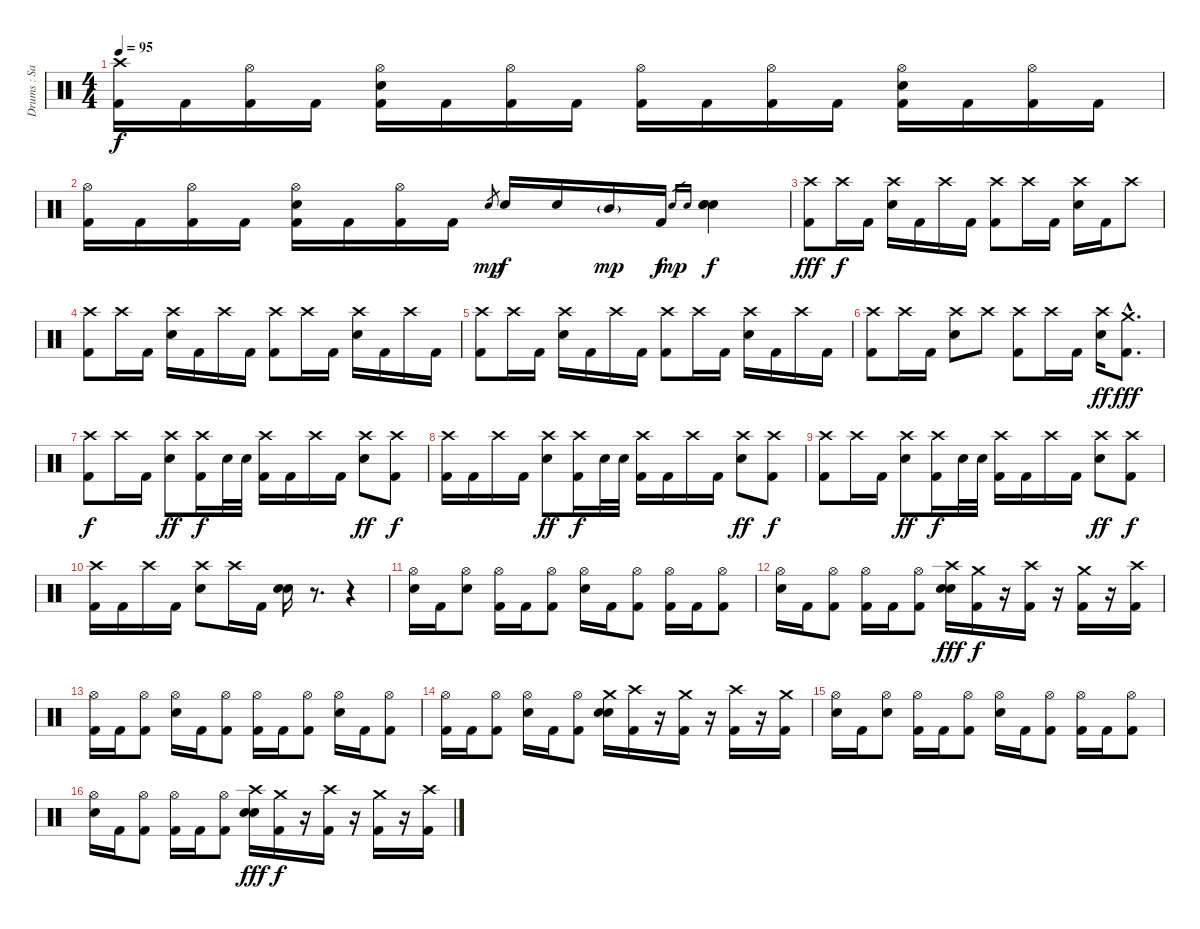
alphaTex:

\track ("Drums : Sammy Siegler" "Drums : Sa") {instrument percussion}
\staff {score}
\articulation defaults
\ts (4 4)
\tempo 95
\clef neutral
\ks c
("Crash high (hit)" "Kick (hit) 2").16{dy f} "Kick (hit) 2".16 ("Hi-Hat (open)" "Kick (hit) 2").16 "Kick (hit) 2".16 ("Hi-Hat (open)" "Electric Snare (hit)" "Kick (hit) 2").16 "Kick (hit) 2".16 ("Hi-Hat (open)" "Kick (hit) 2").16 "Kick (hit) 2".16 ("Hi-Hat (open)" "Kick (hit) 2").16 "Kick (hit) 2".16 ("Hi-Hat (open)" "Kick (hit) 2").16 "Kick (hit) 2".16 ("Hi-Hat (open)" "Electric Snare (hit)" "Kick (hit) 2").16 "Kick (hit) 2".16 ("Hi-Hat (open)" "Kick (hit) 2").16 "Kick (hit) 2".16 |
("Hi-Hat (open)" "Kick (hit) 2").16 "Kick (hit) 2".16 ("Hi-Hat (open)" "Kick (hit) 2").16 "Kick (hit) 2".16 ("Hi-Hat (open)" "Electric Snare (hit)" "Kick (hit) 2").16 "Kick (hit) 2".16 ("Hi-Hat (open)" "Kick (hit) 2").16 "Kick (hit) 2".16 "Electric Snare (hit)"{sl}.8{gr dy mp} "Electric Snare (hit)".16{dy f} "Electric Snare (hit)".16 "Mid Tom (hit)"{g}.16{dy mp} "Kick (hit) 2".16{dy f} "Electric Snare (hit)".16{gr dy mp} "Electric Snare (hit)".16{gr} ("Snare (hit) 2" "Electric Snare (hit)" "Electric Snare (hit)").4{dy f} |
("Crash high (hit)" "Kick (hit) 2").8{dy fff} "Crash high (hit)".16{dy f} "Kick (hit) 2".16 ("Crash high (hit)" "Electric Snare (hit)").16 "Kick (hit) 2".16 "Crash high (hit)".16 "Kick (hit) 2".16 ("Crash high (hit)" "Kick (hit) 2").8 "Crash high (hit)".16 "Kick (hit) 2".16 ("Crash high (hit)" "Electric Snare (hit)").16 "Kick (hit) 2".16 "Crash high (hit)".8 |
("Crash high (hit)" "Kick (hit) 2").8 "Crash high (hit)".16 "Kick (hit) 2".16 ("Crash high (hit)" "Electric Snare (hit)").16 "Kick (hit) 2".16 "Crash high (hit)".16 "Kick (hit) 2".16 ("Crash high (hit)" "Kick (hit) 2").8 "Crash high (hit)".16 "Kick (hit) 2".16 ("Crash high (hit)" "Electric Snare (hit)").16 "Kick (hit) 2".16 "Crash high (hit)".16 "Kick (hit) 2".16 |
("Crash high (hit)" "Kick (hit) 2").8 "Crash high (hit)".16 "Kick (hit) 2".16 ("Crash high (hit)" "Electric Snare (hit)").16 "Kick (hit) 2".16 "Crash high (hit)".16 "Kick (hit) 2".16 ("Crash high (hit)" "Kick (hit) 2").8 "Crash high (hit)".16 "Kick (hit) 2".16 ("Crash high (hit)" "Electric Snare (hit)").16 "Kick (hit) 2".16 "Crash high (hit)".16 "Kick (hit) 2".16 |
("Crash high (hit)" "Kick (hit) 2").8 "Crash high (hit)".16 "Kick (hit) 2".16 ("Crash high (hit)" "Electric Snare (hit)").8 "Crash high (hit)".8 ("Crash high (hit)" "Kick (hit) 2").8 "Crash high (hit)".16 "Kick (hit) 2".16 ("Crash high (hit)" "Electric Snare (hit)").16{dy ff} ("Crash medium (hit)"{hac} "Kick (hit) 2"{hac}).8{d dy fff} |
("Crash high (hit)" "Kick (hit) 2").8{dy f} "Crash high (hit)".16 "Kick (hit) 2".16 ("Crash high (hit)" "Electric Snare (hit)").8{dy ff} ("Crash high (hit)" "Kick (hit) 2").16{dy f} "Electric Snare (hit)".32 "Electric Snare (hit)".32 ("Crash high (hit)" "Kick (hit) 2").16 "Kick (hit) 2".16 "Crash high (hit)".16 "Kick (hit) 2".16 ("Crash high (hit)" "Electric Snare (hit)").8{dy ff} ("Crash high (hit)" "Kick (hit) 2").8{dy f} |
("Crash high (hit)" "Kick (hit) 2").16 "Kick (hit) 2".16 "Crash high (hit)".16 "Kick (hit) 2".16 ("Crash high (hit)" "Electric Snare (hit)").8{dy ff} ("Crash high (hit)" "Kick (hit) 2").16{dy f} "Electric Snare (hit)".32 "Electric Snare (hit)".32 ("Crash high (hit)" "Kick (hit) 2").16 "Kick (hit) 2".16 "Crash high (hit)".16 "Kick (hit) 2".16 ("Crash high (hit)" "Electric Snare (hit)").8{dy ff} ("Crash high (hit)" "Kick (hit) 2").8{dy f} |
("Crash high (hit)" "Kick (hit) 2").8 "Crash high (hit)".16 "Kick (hit) 2".16 ("Crash high (hit)" "Electric Snare (hit)").8{dy ff} ("Crash high (hit)" "Kick (hit) 2").16{dy f} "Electric Snare (hit)".32 "Electric Snare (hit)".32 ("Crash high (hit)" "Kick (hit) 2").16 "Kick (hit) 2".16 "Crash high (hit)".16 "Kick (hit) 2".16 ("Crash high (hit)" "Electric Snare (hit)").8{dy ff} ("Crash high (hit)" "Kick (hit) 2").8{dy f} |
("Crash high (hit)" "Kick (hit) 2").16 "Kick (hit) 2".16 "Crash high (hit)".16 "Kick (hit) 2".16 ("Crash high (hit)" "Electric Snare (hit)").8 "Crash high (hit)".16 "Kick (hit) 2".16 ("Electric Snare (hit)" "Electric Snare (hit)").16 r.8{d} r.4 |
("Hi-Hat (open)" "Electric Snare (hit)").16 "Kick (hit) 2".16 ("Hi-Hat (open)" "Electric Snare (hit)").8 ("Hi-Hat (open)" "Kick (hit) 2").16 "Kick (hit) 2".16 ("Hi-Hat (open)" "Kick (hit) 2").8 ("Hi-Hat (open)" "Electric Snare (hit)").16 "Kick (hit) 2".16 ("Hi-Hat (open)" "Kick (hit) 2").8 ("Hi-Hat (open)" "Kick (hit) 2").16 "Kick (hit) 2".16 ("Hi-Hat (open)" "Kick (hit) 2").8 |
("Hi-Hat (open)" "Electric Snare (hit)").16 "Kick (hit) 2".16 ("Hi-Hat (open)" "Kick (hit) 2").8 ("Hi-Hat (open)" "Kick (hit) 2").16 "Kick (hit) 2".16 ("Hi-Hat (open)" "Kick (hit) 2").8 ("Crash high (hit)" "Electric Snare (hit)" "Electric Snare (hit)").16{dy fff} ("Crash medium (hit)" "Kick (hit) 2").16{dy f} r.16 ("Crash high (hit)" "Kick (hit) 2").16 r.16 ("Crash medium (hit)" "Kick (hit) 2").16 r.16 ("Crash high (hit)" "Kick (hit) 2").16 |
("Hi-Hat (open)" "Kick (hit) 2").16 "Kick (hit) 2".16 ("Hi-Hat (open)" "Kick (hit) 2").8 ("Hi-Hat (open)" "Electric Snare (hit)").16 "Kick (hit) 2".16 ("Hi-Hat (open)" "Kick (hit) 2").8 ("Hi-Hat (open)" "Kick (hit) 2").16 "Kick (hit) 2".16 ("Hi-Hat (open)" "Kick (hit) 2").8 ("Hi-Hat (open)" "Electric Snare (hit)").16 "Kick (hit) 2".16 ("Hi-Hat (open)" "Kick (hit) 2").8 |
("Hi-Hat (open)" "Kick (hit) 2").16 "Kick (hit) 2".16 ("Hi-Hat (open)" "Kick (hit) 2").8 ("Hi-Hat (open)" "Electric Snare (hit)").16 "Kick (hit) 2".16 ("Hi-Hat (open)" "Kick (hit) 2").8 ("Crash medium (hit)" "Electric Snare (hit)" "Electric Snare (hit)").16 ("Crash high (hit)" "Kick (hit) 2").16 r.16 ("Crash medium (hit)" "Kick (hit) 2").16 r.16 ("Crash high (hit)" "Kick (hit) 2").16 r.16 ("Crash medium (hit)" "Kick (hit) 2").16 |
("Hi-Hat (open)" "Electric Snare (hit)").16 "Kick (hit) 2".16 ("Hi-Hat (open)" "Electric Snare (hit)").8 ("Hi-Hat (open)" "Kick (hit) 2").16 "Kick (hit) 2".16 ("Hi-Hat (open)" "Kick (hit) 2").8 ("Hi-Hat (open)" "Electric Snare (hit)").16 "Kick (hit) 2".16 ("Hi-Hat (open)" "Kick (hit) 2").8 ("Hi-Hat (open)" "Kick (hit) 2").16 "Kick (hit) 2".16 ("Hi-Hat (open)" "Kick (hit) 2").8 |
("Hi-Hat (open)" "Electric Snare (hit)").16 "Kick (hit) 2".16 ("Hi-Hat (open)" "Kick (hit) 2").8 ("Hi-Hat (open)" "Kick (hit) 2").16 "Kick (hit) 2".16 ("Hi-Hat (open)" "Kick (hit) 2").8 ("Crash high (hit)" "Electric Snare (hit)" "Electric Snare (hit)").16{dy fff} ("Crash medium (hit)" "Kick (hit) 2").16{dy f} r.16 ("Crash high (hit)" "Kick (hit) 2").16 r.16 ("Crash medium (hit)" "Kick (hit) 2").16 r.16 ("Crash high (hit)" "Kick (hit) 2").16
